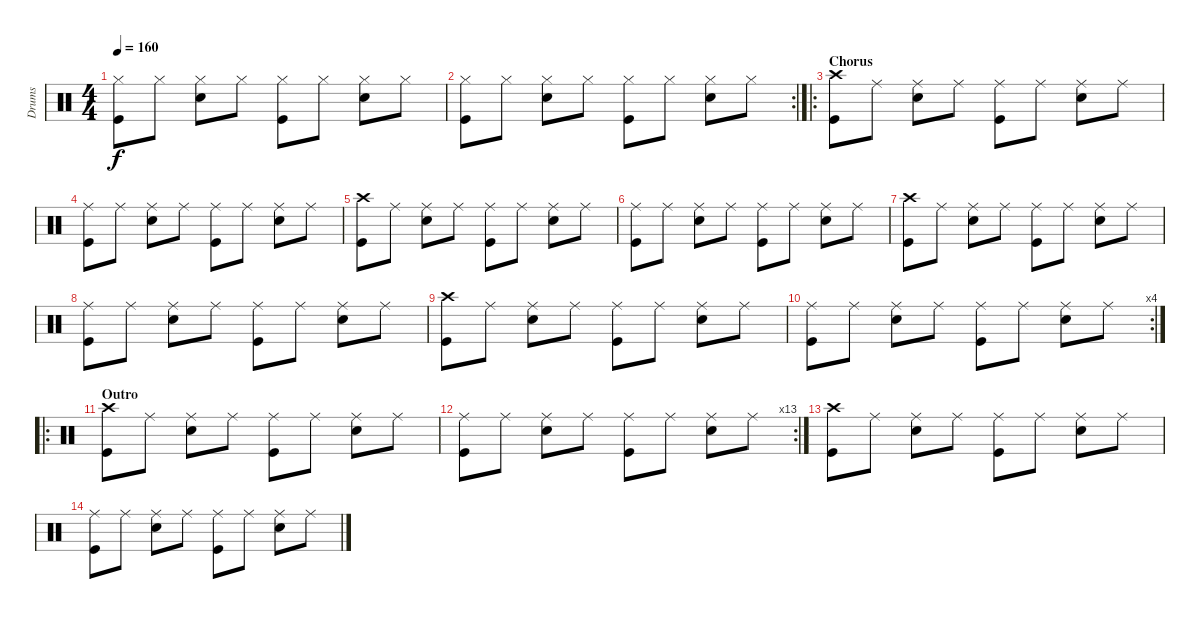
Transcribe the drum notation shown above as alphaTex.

\track ("Drums" "Drums") {instrument percussion}
\staff {score}
\articulation defaults
\ts (4 4)
\tempo 160
\clef neutral
\ks c
("Hi-Hat (closed)" "Kick (hit)").8{dy f} "Hi-Hat (closed)".8 ("Hi-Hat (closed)" "Snare (hit) 2").8 "Hi-Hat (closed)".8 ("Hi-Hat (closed)" "Kick (hit)").8 "Hi-Hat (closed)".8 ("Hi-Hat (closed)" "Snare (hit) 2").8 "Hi-Hat (closed)".8 |
\rc 2
("Hi-Hat (closed)" "Kick (hit)").8 "Hi-Hat (closed)".8 ("Hi-Hat (closed)" "Snare (hit) 2").8 "Hi-Hat (closed)".8 ("Hi-Hat (closed)" "Kick (hit)").8 "Hi-Hat (closed)".8 ("Hi-Hat (closed)" "Snare (hit) 2").8 "Hi-Hat (closed)".8 |
\ro
\section ("" "Chorus")
("Crash high (hit)" "Kick (hit)").8 "Ride (middle)".8 ("Ride (middle)" "Snare (hit) 2").8 "Ride (middle)".8 ("Ride (middle)" "Kick (hit)").8 "Ride (middle)".8 ("Ride (middle)" "Snare (hit) 2").8 "Ride (middle)".8 |
("Ride (middle)" "Kick (hit)").8 "Ride (middle)".8 ("Ride (middle)" "Snare (hit) 2").8 "Ride (middle)".8 ("Ride (middle)" "Kick (hit)").8 "Ride (middle)".8 ("Ride (middle)" "Snare (hit) 2").8 "Ride (middle)".8 |
("Crash high (hit)" "Kick (hit)").8 "Ride (middle)".8 ("Ride (middle)" "Snare (hit) 2").8 "Ride (middle)".8 ("Ride (middle)" "Kick (hit)").8 "Ride (middle)".8 ("Ride (middle)" "Snare (hit) 2").8 "Ride (middle)".8 |
("Ride (middle)" "Kick (hit)").8 "Ride (middle)".8 ("Ride (middle)" "Snare (hit) 2").8 "Ride (middle)".8 ("Ride (middle)" "Kick (hit)").8 "Ride (middle)".8 ("Ride (middle)" "Snare (hit) 2").8 "Ride (middle)".8 |
("Crash high (hit)" "Kick (hit)").8 "Ride (middle)".8 ("Ride (middle)" "Snare (hit) 2").8 "Ride (middle)".8 ("Ride (middle)" "Kick (hit)").8 "Ride (middle)".8 ("Ride (middle)" "Snare (hit) 2").8 "Ride (middle)".8 |
("Ride (middle)" "Kick (hit)").8 "Ride (middle)".8 ("Ride (middle)" "Snare (hit) 2").8 "Ride (middle)".8 ("Ride (middle)" "Kick (hit)").8 "Ride (middle)".8 ("Ride (middle)" "Snare (hit) 2").8 "Ride (middle)".8 |
("Crash high (hit)" "Kick (hit)").8 "Ride (middle)".8 ("Ride (middle)" "Snare (hit) 2").8 "Ride (middle)".8 ("Ride (middle)" "Kick (hit)").8 "Ride (middle)".8 ("Ride (middle)" "Snare (hit) 2").8 "Ride (middle)".8 |
\rc 4
("Ride (middle)" "Kick (hit)").8 "Ride (middle)".8 ("Ride (middle)" "Snare (hit) 2").8 "Ride (middle)".8 ("Ride (middle)" "Kick (hit)").8 "Ride (middle)".8 ("Ride (middle)" "Snare (hit) 2").8 "Ride (middle)".8 |
\ro
\section ("" "Outro")
("Crash high (hit)" "Kick (hit)").8 "Ride (middle)".8 ("Ride (middle)" "Snare (hit) 2").8 "Ride (middle)".8 ("Ride (middle)" "Kick (hit)").8 "Ride (middle)".8 ("Ride (middle)" "Snare (hit) 2").8 "Ride (middle)".8 |
\rc 13
("Ride (middle)" "Kick (hit)").8 "Ride (middle)".8 ("Ride (middle)" "Snare (hit) 2").8 "Ride (middle)".8 ("Ride (middle)" "Kick (hit)").8 "Ride (middle)".8 ("Ride (middle)" "Snare (hit) 2").8 "Ride (middle)".8 |
("Crash high (hit)" "Kick (hit)").8{volume 0} "Ride (middle)".8 ("Ride (middle)" "Snare (hit) 2").8 "Ride (middle)".8 ("Ride (middle)" "Kick (hit)").8 "Ride (middle)".8 ("Ride (middle)" "Snare (hit) 2").8 "Ride (middle)".8 |
("Ride (middle)" "Kick (hit)").8 "Ride (middle)".8 ("Ride (middle)" "Snare (hit) 2").8 "Ride (middle)".8 ("Ride (middle)" "Kick (hit)").8 "Ride (middle)".8 ("Ride (middle)" "Snare (hit) 2").8 "Ride (middle)".8
